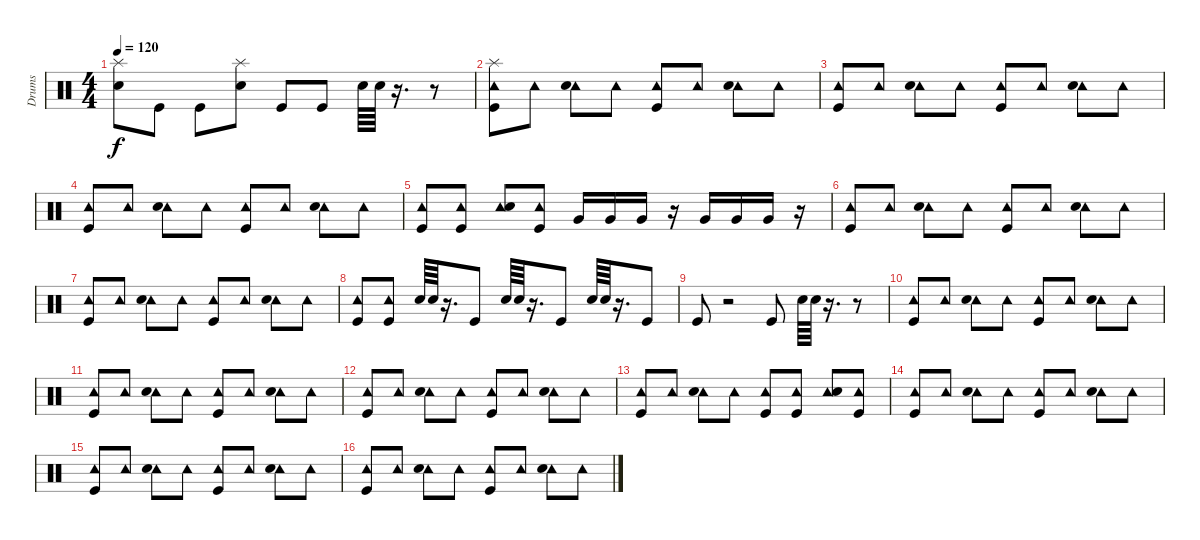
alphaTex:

\track ("Drums" "Drums") {instrument percussion}
\staff {score}
\articulation defaults
\ts (4 4)
\tempo 120
\clef neutral
\ks c
("Splash (hit)" "Snare (hit) 2").8{dy f} "Kick (hit)".8 "Kick (hit)".8 ("Splash (hit)" "Snare (hit) 2").8 "Kick (hit)".8 "Kick (hit)".8 "Snare (hit) 2".64 "Snare (hit) 2".64 r.16{d} r.8 |
("Tambourine (hit)" "Kick (hit)" "Splash (hit)").8 "Tambourine (hit)".8 ("Tambourine (hit)" "Snare (hit) 2").8 "Tambourine (hit)".8 ("Tambourine (hit)" "Kick (hit)").8 "Tambourine (hit)".8 ("Tambourine (hit)" "Snare (hit) 2").8 "Tambourine (hit)".8 |
("Tambourine (hit)" "Kick (hit)").8 "Tambourine (hit)".8 ("Tambourine (hit)" "Snare (hit) 2").8 "Tambourine (hit)".8 ("Tambourine (hit)" "Kick (hit)").8 "Tambourine (hit)".8 ("Tambourine (hit)" "Snare (hit) 2").8 "Tambourine (hit)".8 |
("Tambourine (hit)" "Kick (hit)").8 "Tambourine (hit)".8 ("Tambourine (hit)" "Snare (hit) 2").8 "Tambourine (hit)".8 ("Tambourine (hit)" "Kick (hit)").8 "Tambourine (hit)".8 ("Tambourine (hit)" "Snare (hit) 2").8 "Tambourine (hit)".8 |
("Tambourine (hit)" "Kick (hit)").8 ("Tambourine (hit)" "Kick (hit)").8 ("Tambourine (hit)" "Snare (hit) 2").8 ("Tambourine (hit)" "Kick (hit)").8 "Very Low Tom (hit)".16 "Very Low Tom (hit)".16 "Very Low Tom (hit)".16 r.16 "Very Low Tom (hit)".16 "Very Low Tom (hit)".16 "Very Low Tom (hit)".16 r.16 |
("Tambourine (hit)" "Kick (hit)").8 "Tambourine (hit)".8 ("Tambourine (hit)" "Snare (hit) 2").8 "Tambourine (hit)".8 ("Tambourine (hit)" "Kick (hit)").8 "Tambourine (hit)".8 ("Tambourine (hit)" "Snare (hit) 2").8 "Tambourine (hit)".8 |
("Tambourine (hit)" "Kick (hit)").8 "Tambourine (hit)".8 ("Tambourine (hit)" "Snare (hit) 2").8 "Tambourine (hit)".8 ("Tambourine (hit)" "Kick (hit)").8 "Tambourine (hit)".8 ("Tambourine (hit)" "Snare (hit) 2").8 "Tambourine (hit)".8 |
("Tambourine (hit)" "Kick (hit)").8 ("Tambourine (hit)" "Kick (hit)").8 "Snare (hit) 2".64 "Snare (hit) 2".64 r.16{d} "Kick (hit)".8 "Snare (hit) 2".64 "Snare (hit) 2".64 r.16{d} "Kick (hit)".8 "Snare (hit) 2".64 "Snare (hit) 2".64 r.16{d} "Kick (hit)".8 |
"Kick (hit)".8 r.2 "Kick (hit)".8 "Snare (hit) 2".64 "Snare (hit) 2".64 r.16{d} r.8 |
("Tambourine (hit)" "Kick (hit)").8 "Tambourine (hit)".8 ("Tambourine (hit)" "Snare (hit) 2").8 "Tambourine (hit)".8 ("Tambourine (hit)" "Kick (hit)").8 "Tambourine (hit)".8 ("Tambourine (hit)" "Snare (hit) 2").8 "Tambourine (hit)".8 |
("Tambourine (hit)" "Kick (hit)").8 "Tambourine (hit)".8 ("Tambourine (hit)" "Snare (hit) 2").8 "Tambourine (hit)".8 ("Tambourine (hit)" "Kick (hit)").8 "Tambourine (hit)".8 ("Tambourine (hit)" "Snare (hit) 2").8 "Tambourine (hit)".8 |
("Tambourine (hit)" "Kick (hit)").8 "Tambourine (hit)".8 ("Tambourine (hit)" "Snare (hit) 2").8 "Tambourine (hit)".8 ("Tambourine (hit)" "Kick (hit)").8 "Tambourine (hit)".8 ("Tambourine (hit)" "Snare (hit) 2").8 "Tambourine (hit)".8 |
("Tambourine (hit)" "Kick (hit)").8 "Tambourine (hit)".8 ("Tambourine (hit)" "Snare (hit) 2").8 "Tambourine (hit)".8 ("Tambourine (hit)" "Kick (hit)").8 ("Tambourine (hit)" "Kick (hit)").8 ("Tambourine (hit)" "Snare (hit) 2").8 ("Tambourine (hit)" "Kick (hit)").8 |
("Tambourine (hit)" "Kick (hit)").8 "Tambourine (hit)".8 ("Tambourine (hit)" "Snare (hit) 2").8 "Tambourine (hit)".8 ("Tambourine (hit)" "Kick (hit)").8 "Tambourine (hit)".8 ("Tambourine (hit)" "Snare (hit) 2").8 "Tambourine (hit)".8 |
("Tambourine (hit)" "Kick (hit)").8 "Tambourine (hit)".8 ("Tambourine (hit)" "Snare (hit) 2").8 "Tambourine (hit)".8 ("Tambourine (hit)" "Kick (hit)").8 "Tambourine (hit)".8 ("Tambourine (hit)" "Snare (hit) 2").8 "Tambourine (hit)".8 |
("Tambourine (hit)" "Kick (hit)").8 "Tambourine (hit)".8 ("Tambourine (hit)" "Snare (hit) 2").8 "Tambourine (hit)".8 ("Tambourine (hit)" "Kick (hit)").8 "Tambourine (hit)".8 ("Tambourine (hit)" "Snare (hit) 2").8 "Tambourine (hit)".8
